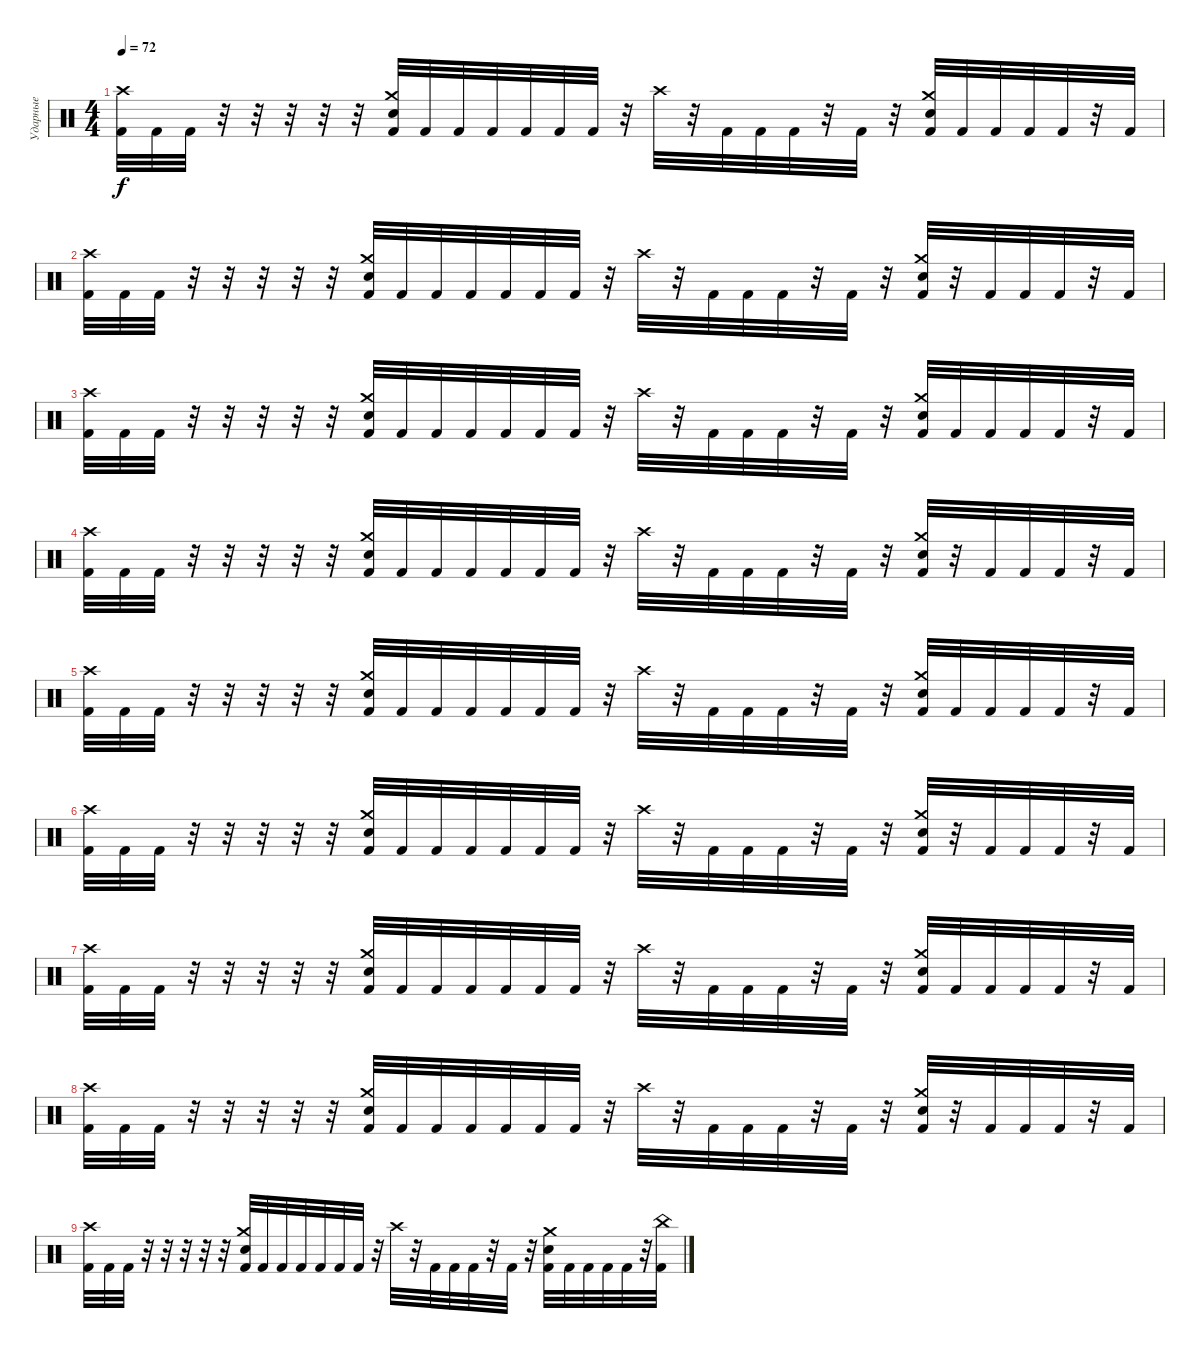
\track ("Ударные" "Ударные") {instrument percussion}
\staff {score}
\articulation defaults
\ts (4 4)
\tempo 72
\clef neutral
\ks c
("Crash high (hit)" "Kick (hit) 2").32{dy f} "Kick (hit) 2".32 "Kick (hit) 2".32 r.32 r.32 r.32 r.32 r.32 ("Crash medium (hit)" "Kick (hit) 2" "Electric Snare (hit)").32 "Kick (hit) 2".32 "Kick (hit) 2".32 "Kick (hit) 2".32 "Kick (hit) 2".32 "Kick (hit) 2".32 "Kick (hit) 2".32 r.32 "Crash high (hit)".32 r.32 "Kick (hit) 2".32 "Kick (hit) 2".32 "Kick (hit) 2".32 r.32 "Kick (hit) 2".32 r.32 ("Crash medium (hit)" "Kick (hit) 2" "Electric Snare (hit)").32 "Kick (hit) 2".32 "Kick (hit) 2".32 "Kick (hit) 2".32 "Kick (hit) 2".32 r.32 "Kick (hit) 2".32 |
("Crash high (hit)" "Kick (hit) 2").32 "Kick (hit) 2".32 "Kick (hit) 2".32 r.32 r.32 r.32 r.32 r.32 ("Crash medium (hit)" "Kick (hit) 2" "Electric Snare (hit)").32 "Kick (hit) 2".32 "Kick (hit) 2".32 "Kick (hit) 2".32 "Kick (hit) 2".32 "Kick (hit) 2".32 "Kick (hit) 2".32 r.32 "Crash high (hit)".32 r.32 "Kick (hit) 2".32 "Kick (hit) 2".32 "Kick (hit) 2".32 r.32 "Kick (hit) 2".32 r.32 ("Crash medium (hit)" "Kick (hit) 2" "Electric Snare (hit)").32 r.32 "Kick (hit) 2".32 "Kick (hit) 2".32 "Kick (hit) 2".32 r.32 "Kick (hit) 2".32 |
("Crash high (hit)" "Kick (hit) 2").32 "Kick (hit) 2".32 "Kick (hit) 2".32 r.32 r.32 r.32 r.32 r.32 ("Crash medium (hit)" "Kick (hit) 2" "Electric Snare (hit)").32 "Kick (hit) 2".32 "Kick (hit) 2".32 "Kick (hit) 2".32 "Kick (hit) 2".32 "Kick (hit) 2".32 "Kick (hit) 2".32 r.32 "Crash high (hit)".32 r.32 "Kick (hit) 2".32 "Kick (hit) 2".32 "Kick (hit) 2".32 r.32 "Kick (hit) 2".32 r.32 ("Crash medium (hit)" "Kick (hit) 2" "Electric Snare (hit)").32 "Kick (hit) 2".32 "Kick (hit) 2".32 "Kick (hit) 2".32 "Kick (hit) 2".32 r.32 "Kick (hit) 2".32 |
("Crash high (hit)" "Kick (hit) 2").32 "Kick (hit) 2".32 "Kick (hit) 2".32 r.32 r.32 r.32 r.32 r.32 ("Crash medium (hit)" "Kick (hit) 2" "Electric Snare (hit)").32 "Kick (hit) 2".32 "Kick (hit) 2".32 "Kick (hit) 2".32 "Kick (hit) 2".32 "Kick (hit) 2".32 "Kick (hit) 2".32 r.32 "Crash high (hit)".32 r.32 "Kick (hit) 2".32 "Kick (hit) 2".32 "Kick (hit) 2".32 r.32 "Kick (hit) 2".32 r.32 ("Crash medium (hit)" "Kick (hit) 2" "Electric Snare (hit)").32 r.32 "Kick (hit) 2".32 "Kick (hit) 2".32 "Kick (hit) 2".32 r.32 "Kick (hit) 2".32 |
("Crash high (hit)" "Kick (hit) 2").32 "Kick (hit) 2".32 "Kick (hit) 2".32 r.32 r.32 r.32 r.32 r.32 ("Crash medium (hit)" "Kick (hit) 2" "Electric Snare (hit)").32 "Kick (hit) 2".32 "Kick (hit) 2".32 "Kick (hit) 2".32 "Kick (hit) 2".32 "Kick (hit) 2".32 "Kick (hit) 2".32 r.32 "Crash high (hit)".32 r.32 "Kick (hit) 2".32 "Kick (hit) 2".32 "Kick (hit) 2".32 r.32 "Kick (hit) 2".32 r.32 ("Crash medium (hit)" "Kick (hit) 2" "Electric Snare (hit)").32 "Kick (hit) 2".32 "Kick (hit) 2".32 "Kick (hit) 2".32 "Kick (hit) 2".32 r.32 "Kick (hit) 2".32 |
("Crash high (hit)" "Kick (hit) 2").32 "Kick (hit) 2".32 "Kick (hit) 2".32 r.32 r.32 r.32 r.32 r.32 ("Crash medium (hit)" "Kick (hit) 2" "Electric Snare (hit)").32 "Kick (hit) 2".32 "Kick (hit) 2".32 "Kick (hit) 2".32 "Kick (hit) 2".32 "Kick (hit) 2".32 "Kick (hit) 2".32 r.32 "Crash high (hit)".32 r.32 "Kick (hit) 2".32 "Kick (hit) 2".32 "Kick (hit) 2".32 r.32 "Kick (hit) 2".32 r.32 ("Crash medium (hit)" "Kick (hit) 2" "Electric Snare (hit)").32 r.32 "Kick (hit) 2".32 "Kick (hit) 2".32 "Kick (hit) 2".32 r.32 "Kick (hit) 2".32 |
("Crash high (hit)" "Kick (hit) 2").32 "Kick (hit) 2".32 "Kick (hit) 2".32 r.32 r.32 r.32 r.32 r.32 ("Crash medium (hit)" "Kick (hit) 2" "Electric Snare (hit)").32 "Kick (hit) 2".32 "Kick (hit) 2".32 "Kick (hit) 2".32 "Kick (hit) 2".32 "Kick (hit) 2".32 "Kick (hit) 2".32 r.32 "Crash high (hit)".32 r.32 "Kick (hit) 2".32 "Kick (hit) 2".32 "Kick (hit) 2".32 r.32 "Kick (hit) 2".32 r.32 ("Crash medium (hit)" "Kick (hit) 2" "Electric Snare (hit)").32 "Kick (hit) 2".32 "Kick (hit) 2".32 "Kick (hit) 2".32 "Kick (hit) 2".32 r.32 "Kick (hit) 2".32 |
("Crash high (hit)" "Kick (hit) 2").32 "Kick (hit) 2".32 "Kick (hit) 2".32 r.32 r.32 r.32 r.32 r.32 ("Crash medium (hit)" "Kick (hit) 2" "Electric Snare (hit)").32 "Kick (hit) 2".32 "Kick (hit) 2".32 "Kick (hit) 2".32 "Kick (hit) 2".32 "Kick (hit) 2".32 "Kick (hit) 2".32 r.32 "Crash high (hit)".32 r.32 "Kick (hit) 2".32 "Kick (hit) 2".32 "Kick (hit) 2".32 r.32 "Kick (hit) 2".32 r.32 ("Crash medium (hit)" "Kick (hit) 2" "Electric Snare (hit)").32 r.32 "Kick (hit) 2".32 "Kick (hit) 2".32 "Kick (hit) 2".32 r.32 "Kick (hit) 2".32 |
("Crash high (hit)" "Kick (hit) 2").32 "Kick (hit) 2".32 "Kick (hit) 2".32 r.32 r.32 r.32 r.32 r.32 ("Crash medium (hit)" "Kick (hit) 2" "Electric Snare (hit)").32 "Kick (hit) 2".32 "Kick (hit) 2".32 "Kick (hit) 2".32 "Kick (hit) 2".32 "Kick (hit) 2".32 "Kick (hit) 2".32 r.32 "Crash high (hit)".32 r.32 "Kick (hit) 2".32 "Kick (hit) 2".32 "Kick (hit) 2".32 r.32 "Kick (hit) 2".32 r.32 ("Crash medium (hit)" "Kick (hit) 2" "Electric Snare (hit)").32 "Kick (hit) 2".32 "Kick (hit) 2".32 "Kick (hit) 2".32 "Kick (hit) 2".32 r.32 ("China (hit)" "Kick (hit) 2").32
